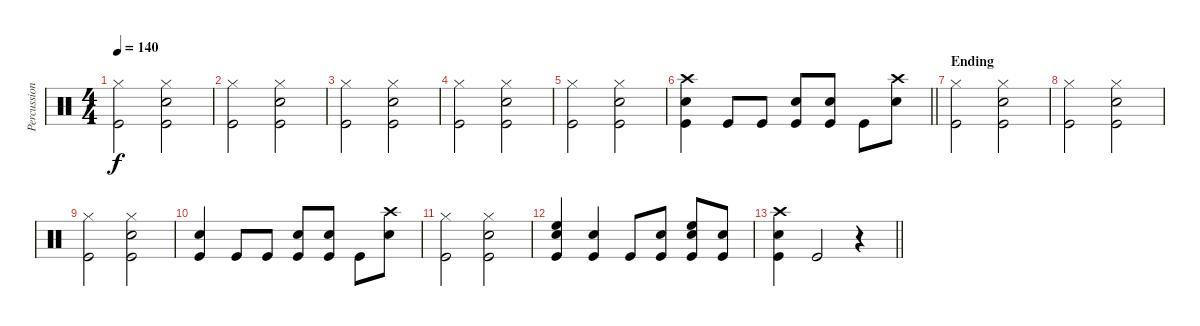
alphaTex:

\track ("Percussion" "Percussion") {instrument percussion}
\staff {score}
\articulation defaults
\ts (4 4)
\tempo 140
\clef neutral
\ks c
("Hi-Hat (closed)" "Kick (hit)").2{dy f} ("Hi-Hat (closed)" "Snare (hit) 2" "Kick (hit)").2 |
("Hi-Hat (closed)" "Kick (hit)").2 ("Hi-Hat (closed)" "Snare (hit) 2" "Kick (hit)").2 |
("Hi-Hat (closed)" "Kick (hit)").2 ("Hi-Hat (closed)" "Snare (hit) 2" "Kick (hit)").2 |
("Hi-Hat (closed)" "Kick (hit)").2 ("Hi-Hat (closed)" "Snare (hit) 2" "Kick (hit)").2 |
("Hi-Hat (closed)" "Kick (hit)").2 ("Hi-Hat (closed)" "Snare (hit) 2" "Kick (hit)").2 |
\barLineRight lightlight
("Crash high (hit)" "Snare (hit) 2" "Kick (hit)").4 "Kick (hit)".8 "Kick (hit)".8 ("Snare (hit) 2" "Kick (hit)").8 ("Snare (hit) 2" "Kick (hit)").8 "Kick (hit)".8 ("Crash high (hit)" "Snare (hit) 2").8 |
\section ("" "Ending")
("Hi-Hat (closed)" "Kick (hit)").2 ("Hi-Hat (closed)" "Snare (hit) 2" "Kick (hit)").2 |
("Hi-Hat (closed)" "Kick (hit)").2 ("Hi-Hat (closed)" "Snare (hit) 2" "Kick (hit)").2 |
("Hi-Hat (closed)" "Kick (hit)").2 ("Hi-Hat (closed)" "Snare (hit) 2" "Kick (hit)").2 |
("Snare (hit) 2" "Kick (hit)").4 "Kick (hit)".8 "Kick (hit)".8 ("Snare (hit) 2" "Kick (hit)").8 ("Snare (hit) 2" "Kick (hit)").8 "Kick (hit)".8 ("Crash high (hit)" "Snare (hit) 2").8 |
("Hi-Hat (closed)" "Kick (hit)").2 ("Hi-Hat (closed)" "Snare (hit) 2" "Kick (hit)").2 |
("High Floor Tom (hit)" "Snare (hit) 2" "Kick (hit)").4 ("Snare (hit) 2" "Kick (hit)").4 "Kick (hit)".8 ("Snare (hit) 2" "Kick (hit)").8 ("High Floor Tom (hit)" "Snare (hit) 2" "Kick (hit)").8 ("Snare (hit) 2" "Kick (hit)").8 |
\barLineRight lightlight
("Crash high (hit)" "Snare (hit) 2" "Kick (hit)").4 "Kick (hit)".2 r.4
